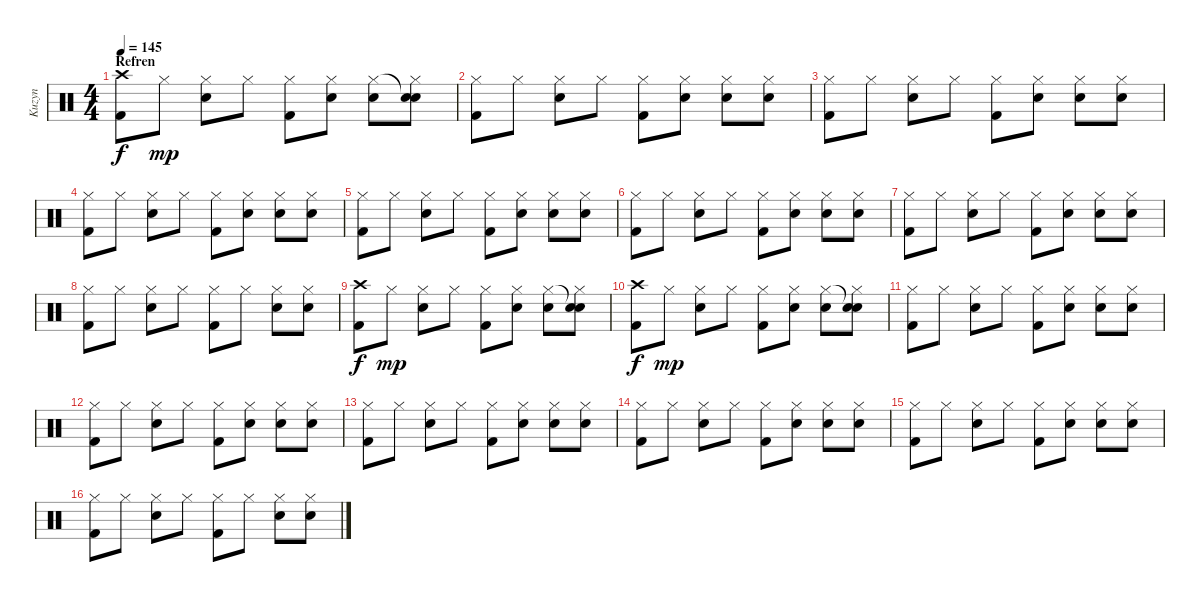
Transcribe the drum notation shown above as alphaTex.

\track ("Kuzyn" "Kuzyn") {instrument percussion}
\staff {score}
\articulation defaults
\ts (4 4)
\section ("" "Refren")
\tempo 145
\clef neutral
\ks c
("Kick (hit) 2" "Crash high (hit)").8{dy f} "Hi-Hat (closed)".8{dy mp} ("Snare (hit) 2" "Hi-Hat (closed)").8 "Hi-Hat (closed)".8 ("Kick (hit) 2" "Hi-Hat (closed)").8 ("Snare (hit) 2" "Hi-Hat (closed)").8 ("Snare (hit) 2" "Hi-Hat (closed)").8 ("Snare (hit) 2" "Snare (hit)"{t} "Hi-Hat (closed)").8 |
("Kick (hit) 2" "Hi-Hat (closed)").8 "Hi-Hat (closed)".8 ("Snare (hit) 2" "Hi-Hat (closed)").8 "Hi-Hat (closed)".8 ("Kick (hit) 2" "Hi-Hat (closed)").8 ("Snare (hit) 2" "Hi-Hat (closed)").8 ("Snare (hit) 2" "Hi-Hat (closed)").8 ("Snare (hit) 2" "Hi-Hat (closed)").8 |
("Kick (hit) 2" "Hi-Hat (closed)").8 "Hi-Hat (closed)".8 ("Snare (hit) 2" "Hi-Hat (closed)").8 "Hi-Hat (closed)".8 ("Kick (hit) 2" "Hi-Hat (closed)").8 ("Snare (hit) 2" "Hi-Hat (closed)").8 ("Snare (hit) 2" "Hi-Hat (closed)").8 ("Snare (hit) 2" "Hi-Hat (closed)").8 |
("Kick (hit) 2" "Hi-Hat (closed)").8 "Hi-Hat (closed)".8 ("Snare (hit) 2" "Hi-Hat (closed)").8 "Hi-Hat (closed)".8 ("Kick (hit) 2" "Hi-Hat (closed)").8 ("Snare (hit) 2" "Hi-Hat (closed)").8 ("Snare (hit) 2" "Hi-Hat (closed)").8 ("Snare (hit) 2" "Hi-Hat (closed)").8 |
("Kick (hit) 2" "Hi-Hat (closed)").8 "Hi-Hat (closed)".8 ("Snare (hit) 2" "Hi-Hat (closed)").8 "Hi-Hat (closed)".8 ("Kick (hit) 2" "Hi-Hat (closed)").8 ("Snare (hit) 2" "Hi-Hat (closed)").8 ("Snare (hit) 2" "Hi-Hat (closed)").8 ("Snare (hit) 2" "Hi-Hat (closed)").8 |
("Kick (hit) 2" "Hi-Hat (closed)").8 "Hi-Hat (closed)".8 ("Snare (hit) 2" "Hi-Hat (closed)").8 "Hi-Hat (closed)".8 ("Kick (hit) 2" "Hi-Hat (closed)").8 ("Snare (hit) 2" "Hi-Hat (closed)").8 ("Snare (hit) 2" "Hi-Hat (closed)").8 ("Snare (hit) 2" "Hi-Hat (closed)").8 |
("Kick (hit) 2" "Hi-Hat (closed)").8 "Hi-Hat (closed)".8 ("Snare (hit) 2" "Hi-Hat (closed)").8 "Hi-Hat (closed)".8 ("Kick (hit) 2" "Hi-Hat (closed)").8 ("Snare (hit) 2" "Hi-Hat (closed)").8 ("Snare (hit) 2" "Hi-Hat (closed)").8 ("Snare (hit) 2" "Hi-Hat (closed)").8 |
("Kick (hit) 2" "Hi-Hat (closed)").8 "Hi-Hat (closed)".8 ("Snare (hit) 2" "Hi-Hat (closed)").8 "Hi-Hat (closed)".8 ("Kick (hit) 2" "Hi-Hat (closed)").8 "Hi-Hat (closed)".8 ("Snare (hit) 2" "Hi-Hat (closed)").8 ("Snare (hit) 2" "Hi-Hat (closed)").8 |
("Kick (hit) 2" "Crash high (hit)").8{dy f} "Hi-Hat (closed)".8{dy mp} ("Snare (hit) 2" "Hi-Hat (closed)").8 "Hi-Hat (closed)".8 ("Kick (hit) 2" "Hi-Hat (closed)").8 ("Snare (hit) 2" "Hi-Hat (closed)").8 ("Snare (hit) 2" "Hi-Hat (closed)").8 ("Snare (hit) 2" "Snare (hit)"{t} "Hi-Hat (closed)").8 |
("Kick (hit) 2" "Crash high (hit)").8{dy f} "Hi-Hat (closed)".8{dy mp} ("Snare (hit) 2" "Hi-Hat (closed)").8 "Hi-Hat (closed)".8 ("Kick (hit) 2" "Hi-Hat (closed)").8 ("Snare (hit) 2" "Hi-Hat (closed)").8 ("Snare (hit) 2" "Hi-Hat (closed)").8 ("Snare (hit) 2" "Snare (hit)"{t} "Hi-Hat (closed)").8 |
("Kick (hit) 2" "Hi-Hat (closed)").8 "Hi-Hat (closed)".8 ("Snare (hit) 2" "Hi-Hat (closed)").8 "Hi-Hat (closed)".8 ("Kick (hit) 2" "Hi-Hat (closed)").8 ("Snare (hit) 2" "Hi-Hat (closed)").8 ("Snare (hit) 2" "Hi-Hat (closed)").8 ("Snare (hit) 2" "Hi-Hat (closed)").8 |
("Kick (hit) 2" "Hi-Hat (closed)").8 "Hi-Hat (closed)".8 ("Snare (hit) 2" "Hi-Hat (closed)").8 "Hi-Hat (closed)".8 ("Kick (hit) 2" "Hi-Hat (closed)").8 ("Snare (hit) 2" "Hi-Hat (closed)").8 ("Snare (hit) 2" "Hi-Hat (closed)").8 ("Snare (hit) 2" "Hi-Hat (closed)").8 |
("Kick (hit) 2" "Hi-Hat (closed)").8 "Hi-Hat (closed)".8 ("Snare (hit) 2" "Hi-Hat (closed)").8 "Hi-Hat (closed)".8 ("Kick (hit) 2" "Hi-Hat (closed)").8 ("Snare (hit) 2" "Hi-Hat (closed)").8 ("Snare (hit) 2" "Hi-Hat (closed)").8 ("Snare (hit) 2" "Hi-Hat (closed)").8 |
("Kick (hit) 2" "Hi-Hat (closed)").8 "Hi-Hat (closed)".8 ("Snare (hit) 2" "Hi-Hat (closed)").8 "Hi-Hat (closed)".8 ("Kick (hit) 2" "Hi-Hat (closed)").8 ("Snare (hit) 2" "Hi-Hat (closed)").8 ("Snare (hit) 2" "Hi-Hat (closed)").8 ("Snare (hit) 2" "Hi-Hat (closed)").8 |
("Kick (hit) 2" "Hi-Hat (closed)").8 "Hi-Hat (closed)".8 ("Snare (hit) 2" "Hi-Hat (closed)").8 "Hi-Hat (closed)".8 ("Kick (hit) 2" "Hi-Hat (closed)").8 ("Snare (hit) 2" "Hi-Hat (closed)").8 ("Snare (hit) 2" "Hi-Hat (closed)").8 ("Snare (hit) 2" "Hi-Hat (closed)").8 |
("Kick (hit) 2" "Hi-Hat (closed)").8 "Hi-Hat (closed)".8 ("Snare (hit) 2" "Hi-Hat (closed)").8 "Hi-Hat (closed)".8 ("Kick (hit) 2" "Hi-Hat (closed)").8 "Hi-Hat (closed)".8 ("Snare (hit) 2" "Hi-Hat (closed)").8 ("Snare (hit) 2" "Hi-Hat (closed)").8
